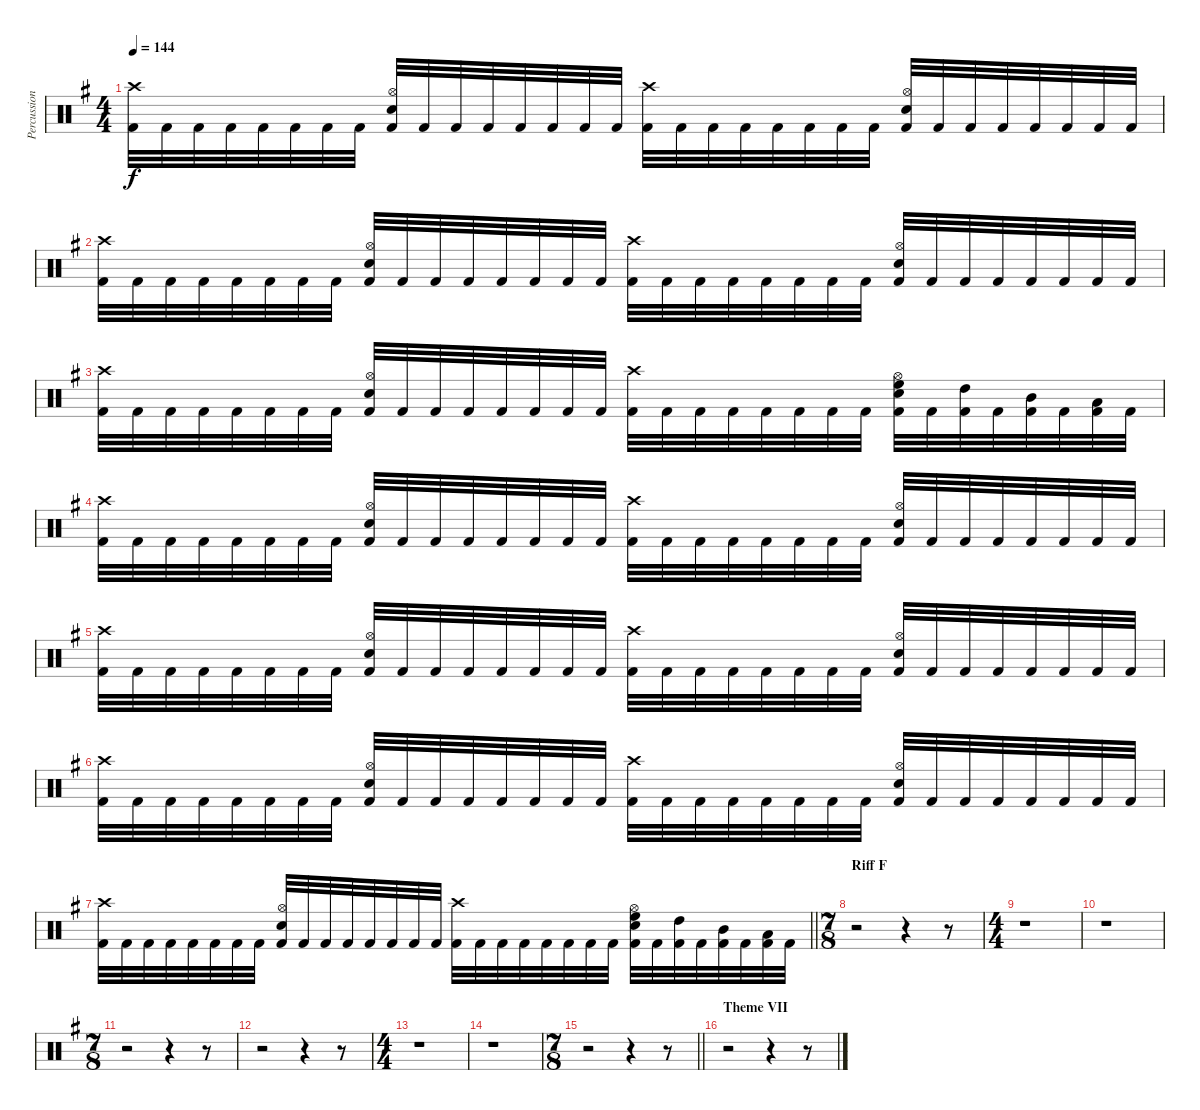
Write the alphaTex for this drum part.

\track ("Percussion" "Percussion") {instrument percussion}
\staff {score}
\articulation defaults
\ts (4 4)
\tempo 144
\clef neutral
\ks eminor
("Crash high (hit)" "Kick (hit) 2").32{dy f} "Kick (hit) 2".32 "Kick (hit) 2".32 "Kick (hit) 2".32 "Kick (hit) 2".32 "Kick (hit) 2".32 "Kick (hit) 2".32 "Kick (hit) 2".32 ("Hi-Hat (open)" "Snare (hit) 2" "Kick (hit) 2").32 "Kick (hit) 2".32 "Kick (hit) 2".32 "Kick (hit) 2".32 "Kick (hit) 2".32 "Kick (hit) 2".32 "Kick (hit) 2".32 "Kick (hit) 2".32 ("Crash high (hit)" "Kick (hit) 2").32 "Kick (hit) 2".32 "Kick (hit) 2".32 "Kick (hit) 2".32 "Kick (hit) 2".32 "Kick (hit) 2".32 "Kick (hit) 2".32 "Kick (hit) 2".32 ("Hi-Hat (open)" "Snare (hit) 2" "Kick (hit) 2").32 "Kick (hit) 2".32 "Kick (hit) 2".32 "Kick (hit) 2".32 "Kick (hit) 2".32 "Kick (hit) 2".32 "Kick (hit) 2".32 "Kick (hit) 2".32 |
("Crash high (hit)" "Kick (hit) 2").32 "Kick (hit) 2".32 "Kick (hit) 2".32 "Kick (hit) 2".32 "Kick (hit) 2".32 "Kick (hit) 2".32 "Kick (hit) 2".32 "Kick (hit) 2".32 ("Hi-Hat (open)" "Snare (hit) 2" "Kick (hit) 2").32 "Kick (hit) 2".32 "Kick (hit) 2".32 "Kick (hit) 2".32 "Kick (hit) 2".32 "Kick (hit) 2".32 "Kick (hit) 2".32 "Kick (hit) 2".32 ("Crash high (hit)" "Kick (hit) 2").32 "Kick (hit) 2".32 "Kick (hit) 2".32 "Kick (hit) 2".32 "Kick (hit) 2".32 "Kick (hit) 2".32 "Kick (hit) 2".32 "Kick (hit) 2".32 ("Hi-Hat (open)" "Snare (hit) 2" "Kick (hit) 2").32 "Kick (hit) 2".32 "Kick (hit) 2".32 "Kick (hit) 2".32 "Kick (hit) 2".32 "Kick (hit) 2".32 "Kick (hit) 2".32 "Kick (hit) 2".32 |
("Crash high (hit)" "Kick (hit) 2").32 "Kick (hit) 2".32 "Kick (hit) 2".32 "Kick (hit) 2".32 "Kick (hit) 2".32 "Kick (hit) 2".32 "Kick (hit) 2".32 "Kick (hit) 2".32 ("Hi-Hat (open)" "Snare (hit) 2" "Kick (hit) 2").32 "Kick (hit) 2".32 "Kick (hit) 2".32 "Kick (hit) 2".32 "Kick (hit) 2".32 "Kick (hit) 2".32 "Kick (hit) 2".32 "Kick (hit) 2".32 ("Crash high (hit)" "Kick (hit) 2").32 "Kick (hit) 2".32 "Kick (hit) 2".32 "Kick (hit) 2".32 "Kick (hit) 2".32 "Kick (hit) 2".32 "Kick (hit) 2".32 "Kick (hit) 2".32 ("High Floor Tom (hit)" "Hi-Hat (open)" "Snare (hit) 2" "Kick (hit) 2").32 "Kick (hit) 2".32 ("High Tom (hit)" "Kick (hit) 2").32 "Kick (hit) 2".32 ("Mid Tom (hit)" "Kick (hit) 2").32 "Kick (hit) 2".32 ("Low Tom (hit)" "Kick (hit) 2").32 "Kick (hit) 2".32 |
("Crash high (hit)" "Kick (hit) 2").32 "Kick (hit) 2".32 "Kick (hit) 2".32 "Kick (hit) 2".32 "Kick (hit) 2".32 "Kick (hit) 2".32 "Kick (hit) 2".32 "Kick (hit) 2".32 ("Hi-Hat (open)" "Snare (hit) 2" "Kick (hit) 2").32 "Kick (hit) 2".32 "Kick (hit) 2".32 "Kick (hit) 2".32 "Kick (hit) 2".32 "Kick (hit) 2".32 "Kick (hit) 2".32 "Kick (hit) 2".32 ("Crash high (hit)" "Kick (hit) 2").32 "Kick (hit) 2".32 "Kick (hit) 2".32 "Kick (hit) 2".32 "Kick (hit) 2".32 "Kick (hit) 2".32 "Kick (hit) 2".32 "Kick (hit) 2".32 ("Hi-Hat (open)" "Snare (hit) 2" "Kick (hit) 2").32 "Kick (hit) 2".32 "Kick (hit) 2".32 "Kick (hit) 2".32 "Kick (hit) 2".32 "Kick (hit) 2".32 "Kick (hit) 2".32 "Kick (hit) 2".32 |
("Crash high (hit)" "Kick (hit) 2").32 "Kick (hit) 2".32 "Kick (hit) 2".32 "Kick (hit) 2".32 "Kick (hit) 2".32 "Kick (hit) 2".32 "Kick (hit) 2".32 "Kick (hit) 2".32 ("Hi-Hat (open)" "Snare (hit) 2" "Kick (hit) 2").32 "Kick (hit) 2".32 "Kick (hit) 2".32 "Kick (hit) 2".32 "Kick (hit) 2".32 "Kick (hit) 2".32 "Kick (hit) 2".32 "Kick (hit) 2".32 ("Crash high (hit)" "Kick (hit) 2").32 "Kick (hit) 2".32 "Kick (hit) 2".32 "Kick (hit) 2".32 "Kick (hit) 2".32 "Kick (hit) 2".32 "Kick (hit) 2".32 "Kick (hit) 2".32 ("Hi-Hat (open)" "Snare (hit) 2" "Kick (hit) 2").32 "Kick (hit) 2".32 "Kick (hit) 2".32 "Kick (hit) 2".32 "Kick (hit) 2".32 "Kick (hit) 2".32 "Kick (hit) 2".32 "Kick (hit) 2".32 |
("Crash high (hit)" "Kick (hit) 2").32 "Kick (hit) 2".32 "Kick (hit) 2".32 "Kick (hit) 2".32 "Kick (hit) 2".32 "Kick (hit) 2".32 "Kick (hit) 2".32 "Kick (hit) 2".32 ("Hi-Hat (open)" "Snare (hit) 2" "Kick (hit) 2").32 "Kick (hit) 2".32 "Kick (hit) 2".32 "Kick (hit) 2".32 "Kick (hit) 2".32 "Kick (hit) 2".32 "Kick (hit) 2".32 "Kick (hit) 2".32 ("Crash high (hit)" "Kick (hit) 2").32 "Kick (hit) 2".32 "Kick (hit) 2".32 "Kick (hit) 2".32 "Kick (hit) 2".32 "Kick (hit) 2".32 "Kick (hit) 2".32 "Kick (hit) 2".32 ("Hi-Hat (open)" "Snare (hit) 2" "Kick (hit) 2").32 "Kick (hit) 2".32 "Kick (hit) 2".32 "Kick (hit) 2".32 "Kick (hit) 2".32 "Kick (hit) 2".32 "Kick (hit) 2".32 "Kick (hit) 2".32 |
\barLineRight lightlight
("Crash high (hit)" "Kick (hit) 2").32 "Kick (hit) 2".32 "Kick (hit) 2".32 "Kick (hit) 2".32 "Kick (hit) 2".32 "Kick (hit) 2".32 "Kick (hit) 2".32 "Kick (hit) 2".32 ("Hi-Hat (open)" "Snare (hit) 2" "Kick (hit) 2").32 "Kick (hit) 2".32 "Kick (hit) 2".32 "Kick (hit) 2".32 "Kick (hit) 2".32 "Kick (hit) 2".32 "Kick (hit) 2".32 "Kick (hit) 2".32 ("Crash high (hit)" "Kick (hit) 2").32 "Kick (hit) 2".32 "Kick (hit) 2".32 "Kick (hit) 2".32 "Kick (hit) 2".32 "Kick (hit) 2".32 "Kick (hit) 2".32 "Kick (hit) 2".32 ("High Floor Tom (hit)" "Hi-Hat (open)" "Snare (hit) 2" "Kick (hit) 2").32 "Kick (hit) 2".32 ("High Tom (hit)" "Kick (hit) 2").32 "Kick (hit) 2".32 ("Mid Tom (hit)" "Kick (hit) 2").32 "Kick (hit) 2".32 ("Low Tom (hit)" "Kick (hit) 2").32 "Kick (hit) 2".32 |
\ts (7 8)
\section ("" "Riff F")
r.2 r.4 r.8 |
\ts (4 4)
r.1 |
r.1 |
\ts (7 8)
r.2 r.4 r.8 |
r.2 r.4 r.8 |
\ts (4 4)
r.1 |
r.1 |
\ts (7 8)
\barLineRight lightlight
r.2 r.4 r.8 |
\section ("" "Theme VII")
r.2 r.4 r.8
